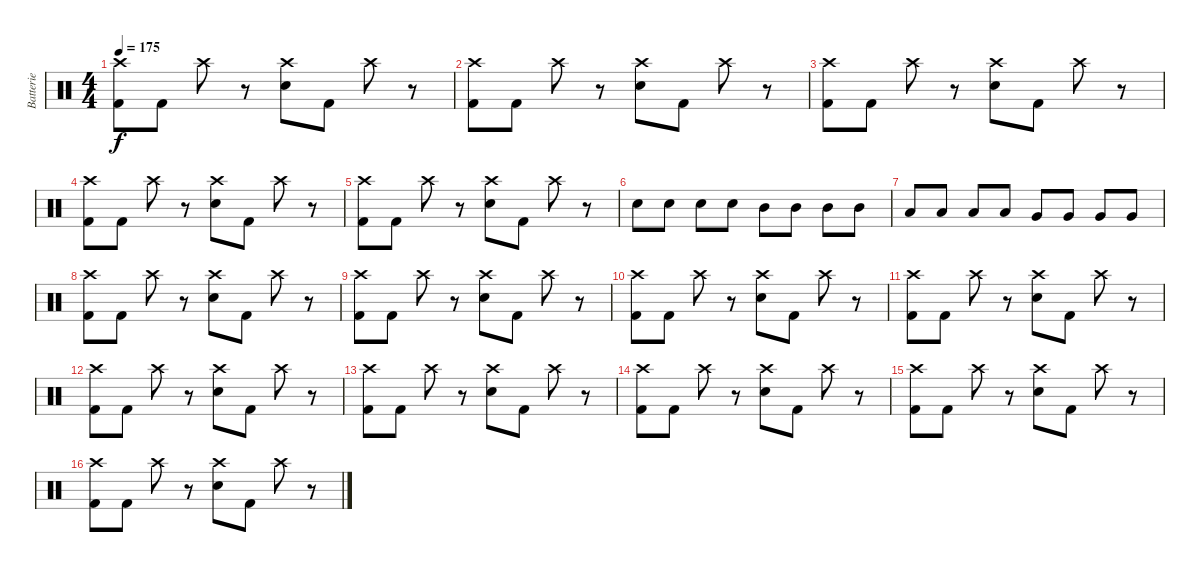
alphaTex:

\track ("Batterie" "Batterie") {instrument percussion}
\staff {score}
\articulation defaults
\ts (4 4)
\tempo 175
\clef neutral
\ks c
("Kick (hit) 2" "Crash high (hit)").8{dy f} "Kick (hit) 2".8 "Crash high (hit)".8 r.8 ("Electric Snare (hit)" "Crash high (hit)").8 "Kick (hit) 2".8 "Crash high (hit)".8 r.8 |
("Kick (hit) 2" "Crash high (hit)").8 "Kick (hit) 2".8 "Crash high (hit)".8 r.8 ("Electric Snare (hit)" "Crash high (hit)").8 "Kick (hit) 2".8 "Crash high (hit)".8 r.8 |
("Kick (hit) 2" "Crash high (hit)").8 "Kick (hit) 2".8 "Crash high (hit)".8 r.8 ("Electric Snare (hit)" "Crash high (hit)").8 "Kick (hit) 2".8 "Crash high (hit)".8 r.8 |
("Kick (hit) 2" "Crash high (hit)").8 "Kick (hit) 2".8 "Crash high (hit)".8 r.8 ("Electric Snare (hit)" "Crash high (hit)").8 "Kick (hit) 2".8 "Crash high (hit)".8 r.8 |
("Kick (hit) 2" "Crash high (hit)").8 "Kick (hit) 2".8 "Crash high (hit)".8 r.8 ("Electric Snare (hit)" "Crash high (hit)").8 "Kick (hit) 2".8 "Crash high (hit)".8 r.8 |
"Electric Snare (hit)".8 "Electric Snare (hit)".8 "Electric Snare (hit)".8 "Electric Snare (hit)".8 "Mid Tom (hit)".8 "Mid Tom (hit)".8 "Mid Tom (hit)".8 "Mid Tom (hit)".8 |
"Low Tom (hit)".8 "Low Tom (hit)".8 "Low Tom (hit)".8 "Low Tom (hit)".8 "Very Low Tom (hit)".8 "Very Low Tom (hit)".8 "Very Low Tom (hit)".8 "Very Low Tom (hit)".8 |
("Kick (hit) 2" "Crash high (hit)").8 "Kick (hit) 2".8 "Crash high (hit)".8 r.8 ("Electric Snare (hit)" "Crash high (hit)").8 "Kick (hit) 2".8 "Crash high (hit)".8 r.8 |
("Kick (hit) 2" "Crash high (hit)").8 "Kick (hit) 2".8 "Crash high (hit)".8 r.8 ("Electric Snare (hit)" "Crash high (hit)").8 "Kick (hit) 2".8 "Crash high (hit)".8 r.8 |
("Kick (hit) 2" "Crash high (hit)").8 "Kick (hit) 2".8 "Crash high (hit)".8 r.8 ("Electric Snare (hit)" "Crash high (hit)").8 "Kick (hit) 2".8 "Crash high (hit)".8 r.8 |
("Kick (hit) 2" "Crash high (hit)").8 "Kick (hit) 2".8 "Crash high (hit)".8 r.8 ("Electric Snare (hit)" "Crash high (hit)").8 "Kick (hit) 2".8 "Crash high (hit)".8 r.8 |
("Kick (hit) 2" "Crash high (hit)").8 "Kick (hit) 2".8 "Crash high (hit)".8 r.8 ("Electric Snare (hit)" "Crash high (hit)").8 "Kick (hit) 2".8 "Crash high (hit)".8 r.8 |
("Kick (hit) 2" "Crash high (hit)").8 "Kick (hit) 2".8 "Crash high (hit)".8 r.8 ("Electric Snare (hit)" "Crash high (hit)").8 "Kick (hit) 2".8 "Crash high (hit)".8 r.8 |
("Kick (hit) 2" "Crash high (hit)").8 "Kick (hit) 2".8 "Crash high (hit)".8 r.8 ("Electric Snare (hit)" "Crash high (hit)").8 "Kick (hit) 2".8 "Crash high (hit)".8 r.8 |
("Kick (hit) 2" "Crash high (hit)").8 "Kick (hit) 2".8 "Crash high (hit)".8 r.8 ("Electric Snare (hit)" "Crash high (hit)").8 "Kick (hit) 2".8 "Crash high (hit)".8 r.8 |
("Kick (hit) 2" "Crash high (hit)").8 "Kick (hit) 2".8 "Crash high (hit)".8 r.8 ("Electric Snare (hit)" "Crash high (hit)").8 "Kick (hit) 2".8 "Crash high (hit)".8 r.8
